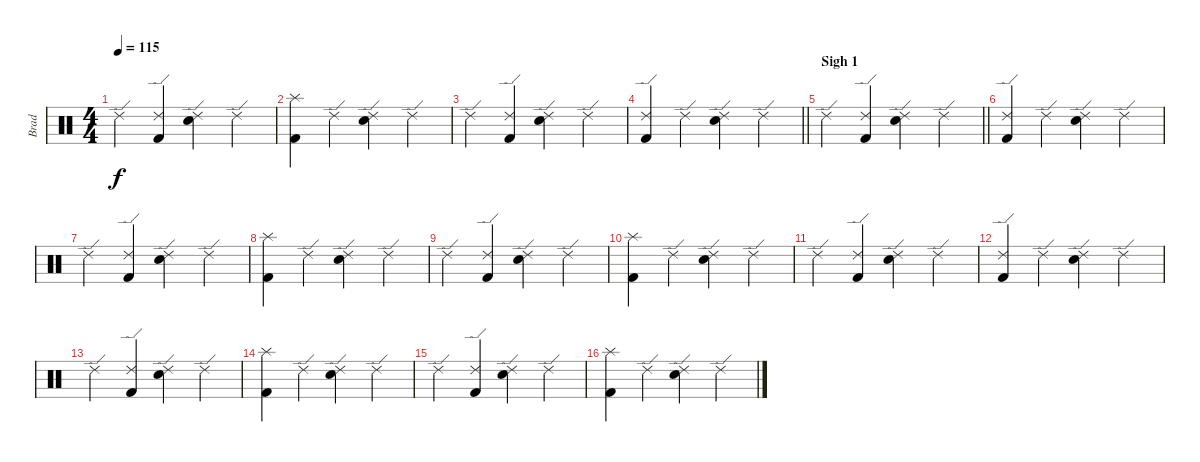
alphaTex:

\track ("Brad" "Brad") {instrument percussion}
\staff {score}
\articulation defaults
\ts (4 4)
\tempo 115
\clef neutral
\ks c "Ride (edge) 2".4{dy f}
("Ride (edge) 2" "Kick (hit) 2").4 ("Ride (edge) 2" "Electric Snare (hit)").4 "Ride (edge) 2".4 |
("Splash (hit)" "Kick (hit) 2").4 "Ride (edge) 2".4 ("Ride (edge) 2" "Electric Snare (hit)").4 "Ride (edge) 2".4 |
"Ride (edge) 2".4 ("Ride (edge) 2" "Kick (hit) 2").4 ("Ride (edge) 2" "Electric Snare (hit)").4 "Ride (edge) 2".4 |
\barLineRight lightlight
("Ride (edge) 2" "Kick (hit) 2").4 "Ride (edge) 2".4 ("Ride (edge) 2" "Electric Snare (hit)").4 "Ride (edge) 2".4 |
\section ("" "Sigh 1")
\barLineRight lightlight "Ride (edge) 2".4
("Ride (edge) 2" "Kick (hit) 2").4 ("Ride (edge) 2" "Electric Snare (hit)").4 "Ride (edge) 2".4 |
("Ride (edge) 2" "Kick (hit) 2").4 "Ride (edge) 2".4 ("Ride (edge) 2" "Electric Snare (hit)").4 "Ride (edge) 2".4 |
"Ride (edge) 2".4 ("Ride (edge) 2" "Kick (hit) 2").4 ("Ride (edge) 2" "Electric Snare (hit)").4 "Ride (edge) 2".4 |
("Splash (hit)" "Kick (hit) 2").4 "Ride (edge) 2".4 ("Ride (edge) 2" "Electric Snare (hit)").4 "Ride (edge) 2".4 |
"Ride (edge) 2".4 ("Ride (edge) 2" "Kick (hit) 2").4 ("Ride (edge) 2" "Electric Snare (hit)").4 "Ride (edge) 2".4 |
("Splash (hit)" "Kick (hit) 2").4 "Ride (edge) 2".4 ("Ride (edge) 2" "Electric Snare (hit)").4 "Ride (edge) 2".4 |
"Ride (edge) 2".4 ("Ride (edge) 2" "Kick (hit) 2").4 ("Ride (edge) 2" "Electric Snare (hit)").4 "Ride (edge) 2".4 |
("Ride (edge) 2" "Kick (hit) 2").4 "Ride (edge) 2".4 ("Ride (edge) 2" "Electric Snare (hit)").4 "Ride (edge) 2".4 |
"Ride (edge) 2".4 ("Ride (edge) 2" "Kick (hit) 2").4 ("Ride (edge) 2" "Electric Snare (hit)").4 "Ride (edge) 2".4 |
("Splash (hit)" "Kick (hit) 2").4 "Ride (edge) 2".4 ("Ride (edge) 2" "Electric Snare (hit)").4 "Ride (edge) 2".4 |
"Ride (edge) 2".4 ("Ride (edge) 2" "Kick (hit) 2").4 ("Ride (edge) 2" "Electric Snare (hit)").4 "Ride (edge) 2".4 |
("Splash (hit)" "Kick (hit) 2").4 "Ride (edge) 2".4 ("Ride (edge) 2" "Electric Snare (hit)").4 "Ride (edge) 2".4
